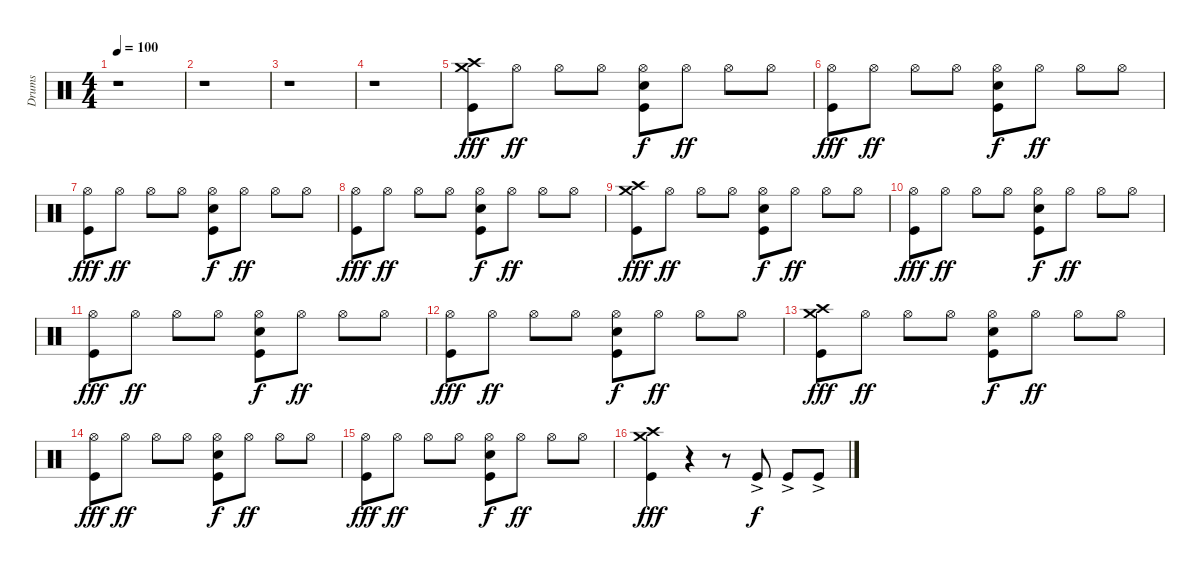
\track ("Drums" "Drums") {instrument percussion}
\staff {score}
\articulation defaults
\ts (4 4)
\tempo 100
\clef neutral
\ks c
r.1{dy f} |
r.1 |
r.1 |
r.1 |
("Kick (hit)" "Crash high (hit)" "Crash medium (hit)").8{dy fff} "Hi-Hat (open)".8{dy ff} "Hi-Hat (open)".8 "Hi-Hat (open)".8 ("Kick (hit)" "Snare (hit) 2" "Hi-Hat (open)").8{dy f} "Hi-Hat (open)".8{dy ff} "Hi-Hat (open)".8 "Hi-Hat (open)".8 |
("Kick (hit)" "Hi-Hat (open)").8{dy fff} "Hi-Hat (open)".8{dy ff} "Hi-Hat (open)".8 "Hi-Hat (open)".8 ("Kick (hit)" "Snare (hit) 2" "Hi-Hat (open)").8{dy f} "Hi-Hat (open)".8{dy ff} "Hi-Hat (open)".8 "Hi-Hat (open)".8 |
("Kick (hit)" "Hi-Hat (open)").8{dy fff} "Hi-Hat (open)".8{dy ff} "Hi-Hat (open)".8 "Hi-Hat (open)".8 ("Kick (hit)" "Snare (hit) 2" "Hi-Hat (open)").8{dy f} "Hi-Hat (open)".8{dy ff} "Hi-Hat (open)".8 "Hi-Hat (open)".8 |
("Kick (hit)" "Hi-Hat (open)").8{dy fff} "Hi-Hat (open)".8{dy ff} "Hi-Hat (open)".8 "Hi-Hat (open)".8 ("Kick (hit)" "Snare (hit) 2" "Hi-Hat (open)").8{dy f} "Hi-Hat (open)".8{dy ff} "Hi-Hat (open)".8 "Hi-Hat (open)".8 |
("Kick (hit)" "Crash high (hit)" "Crash medium (hit)").8{dy fff} "Hi-Hat (open)".8{dy ff} "Hi-Hat (open)".8 "Hi-Hat (open)".8 ("Kick (hit)" "Snare (hit) 2" "Hi-Hat (open)").8{dy f} "Hi-Hat (open)".8{dy ff} "Hi-Hat (open)".8 "Hi-Hat (open)".8 |
("Kick (hit)" "Hi-Hat (open)").8{dy fff} "Hi-Hat (open)".8{dy ff} "Hi-Hat (open)".8 "Hi-Hat (open)".8 ("Kick (hit)" "Snare (hit) 2" "Hi-Hat (open)").8{dy f} "Hi-Hat (open)".8{dy ff} "Hi-Hat (open)".8 "Hi-Hat (open)".8 |
("Kick (hit)" "Hi-Hat (open)").8{dy fff} "Hi-Hat (open)".8{dy ff} "Hi-Hat (open)".8 "Hi-Hat (open)".8 ("Kick (hit)" "Snare (hit) 2" "Hi-Hat (open)").8{dy f} "Hi-Hat (open)".8{dy ff} "Hi-Hat (open)".8 "Hi-Hat (open)".8 |
("Kick (hit)" "Hi-Hat (open)").8{dy fff} "Hi-Hat (open)".8{dy ff} "Hi-Hat (open)".8 "Hi-Hat (open)".8 ("Kick (hit)" "Snare (hit) 2" "Hi-Hat (open)").8{dy f} "Hi-Hat (open)".8{dy ff} "Hi-Hat (open)".8 "Hi-Hat (open)".8 |
("Kick (hit)" "Crash high (hit)" "Crash medium (hit)").8{dy fff} "Hi-Hat (open)".8{dy ff} "Hi-Hat (open)".8 "Hi-Hat (open)".8 ("Kick (hit)" "Snare (hit) 2" "Hi-Hat (open)").8{dy f} "Hi-Hat (open)".8{dy ff} "Hi-Hat (open)".8 "Hi-Hat (open)".8 |
("Kick (hit)" "Hi-Hat (open)").8{dy fff} "Hi-Hat (open)".8{dy ff} "Hi-Hat (open)".8 "Hi-Hat (open)".8 ("Kick (hit)" "Snare (hit) 2" "Hi-Hat (open)").8{dy f} "Hi-Hat (open)".8{dy ff} "Hi-Hat (open)".8 "Hi-Hat (open)".8 |
("Kick (hit)" "Hi-Hat (open)").8{dy fff} "Hi-Hat (open)".8{dy ff} "Hi-Hat (open)".8 "Hi-Hat (open)".8 ("Kick (hit)" "Snare (hit) 2" "Hi-Hat (open)").8{dy f} "Hi-Hat (open)".8{dy ff} "Hi-Hat (open)".8 "Hi-Hat (open)".8 |
("Crash high (hit)" "Kick (hit)" "Crash medium (hit)").4{dy fff} r.4 r.8 "Kick (hit)"{ac}.8{dy f} "Kick (hit)"{ac}.8 "Kick (hit)"{ac}.8
